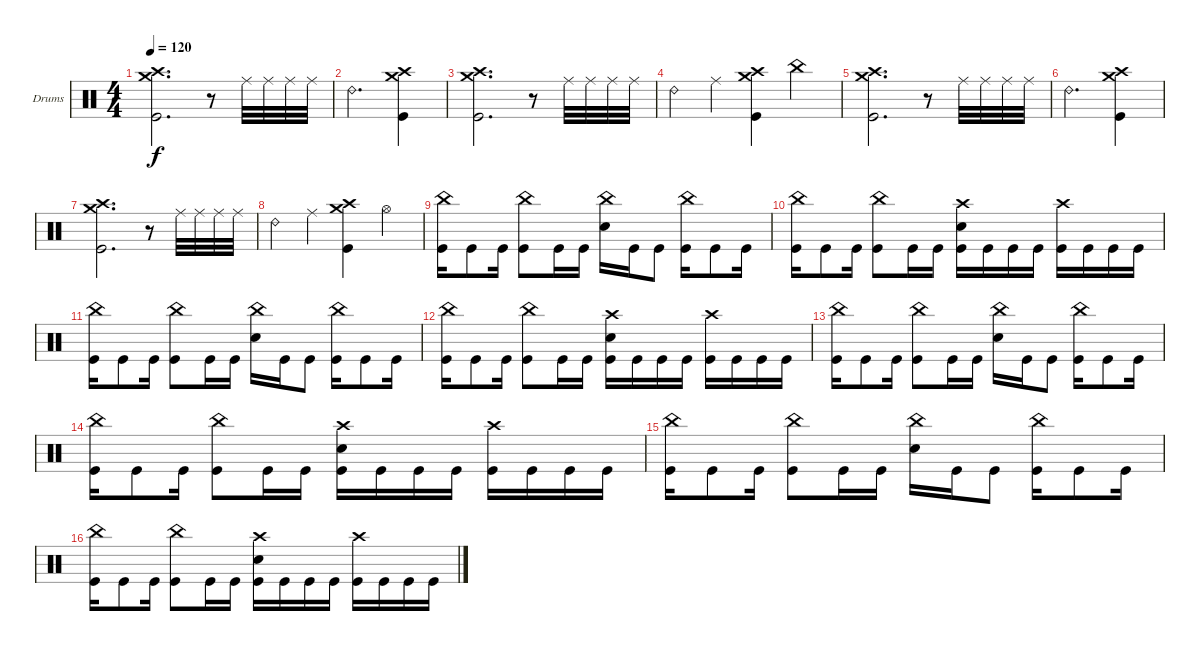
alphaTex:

\defaultSystemsLayout 4
\bracketExtendMode groupsimilarinstruments
\firstSystemTrackNameOrientation horizontal
\otherSystemsTrackNameOrientation horizontal
\track ("Drumkit" "Drums") {instrument percussion}
\staff {score}
\articulation defaults
\ts (4 4)
\tempo 120
\clef neutral
\scale
0.333333
\ks c
("Crash medium (hit)" "Crash high (hit)" "Kick (hit)").2{d dy f} r.8 "Ride (middle)".32 "Ride (middle)".32 "Ride (middle)".32 "Ride (middle)".32 |
\scale
0.333333 "Ride (bell) 2".2{d} ("Crash high (hit)" "Crash medium (hit)" "Kick (hit)").4 |
\scale
0.333333 ("Crash medium (hit)" "Crash high (hit)" "Kick (hit)").2{d} r.8 "Ride (middle)".32 "Ride (middle)".32 "Ride (middle)".32 "Ride (middle)".32 |
\scale
0.333333 "Ride (bell) 2".4 "Ride (middle)".4 ("Crash medium (hit)" "Crash high (hit)" "Kick (hit)").4 "China (hit)".4 |
\scale
0.333333 ("Crash medium (hit)" "Crash high (hit)" "Kick (hit)").2{d} r.8 "Ride (middle)".32 "Ride (middle)".32 "Ride (middle)".32 "Ride (middle)".32 |
\scale
0.333333 "Ride (bell) 2".2{d} ("Crash high (hit)" "Crash medium (hit)" "Kick (hit)").4 |
\scale
0.333333 ("Crash medium (hit)" "Crash high (hit)" "Kick (hit)").2{d} r.8 "Ride (middle)".32 "Ride (middle)".32 "Ride (middle)".32 "Ride (middle)".32 |
\scale
0.333333 "Ride (bell) 2".4 "Ride (middle)".4 ("Crash medium (hit)" "Crash high (hit)" "Kick (hit)").4 "Hi-Hat (open)".4 |
\scale
0.333333 ("China (hit)" "Kick (hit)").16 "Kick (hit)".8 "Kick (hit)".16 ("China (hit)" "Kick (hit)").8 "Kick (hit)".16 "Kick (hit)".16 ("China (hit)" "Snare (hit) 2").16 "Kick (hit)".16 "Kick (hit)".8 ("China (hit)" "Kick (hit)").16 "Kick (hit)".8 "Kick (hit)".16 |
\scale
0.333333 ("China (hit)" "Kick (hit)").16 "Kick (hit)".8 "Kick (hit)".16 ("China (hit)" "Kick (hit)").8 "Kick (hit)".16 "Kick (hit)".16 ("Crash high (hit)" "Snare (hit) 2" "Kick (hit)").16 "Kick (hit)".16 "Kick (hit)".16 "Kick (hit)".16 ("Crash high (hit)" "Kick (hit)").16 "Kick (hit)".16 "Kick (hit)".16 "Kick (hit)".16 |
\scale
0.333333 ("China (hit)" "Kick (hit)").16 "Kick (hit)".8 "Kick (hit)".16 ("China (hit)" "Kick (hit)").8 "Kick (hit)".16 "Kick (hit)".16 ("China (hit)" "Snare (hit) 2").16 "Kick (hit)".16 "Kick (hit)".8 ("China (hit)" "Kick (hit)").16 "Kick (hit)".8 "Kick (hit)".16 |
\scale
0.333333 ("China (hit)" "Kick (hit)").16 "Kick (hit)".8 "Kick (hit)".16 ("China (hit)" "Kick (hit)").8 "Kick (hit)".16 "Kick (hit)".16 ("Crash high (hit)" "Snare (hit) 2" "Kick (hit)").16 "Kick (hit)".16 "Kick (hit)".16 "Kick (hit)".16 ("Crash high (hit)" "Kick (hit)").16 "Kick (hit)".16 "Kick (hit)".16 "Kick (hit)".16 |
\scale
0.333333 ("China (hit)" "Kick (hit)").16 "Kick (hit)".8 "Kick (hit)".16 ("China (hit)" "Kick (hit)").8 "Kick (hit)".16 "Kick (hit)".16 ("China (hit)" "Snare (hit) 2").16 "Kick (hit)".16 "Kick (hit)".8 ("China (hit)" "Kick (hit)").16 "Kick (hit)".8 "Kick (hit)".16 |
\scale
0.333333 ("China (hit)" "Kick (hit)").16 "Kick (hit)".8 "Kick (hit)".16 ("China (hit)" "Kick (hit)").8 "Kick (hit)".16 "Kick (hit)".16 ("Crash high (hit)" "Snare (hit) 2" "Kick (hit)").16 "Kick (hit)".16 "Kick (hit)".16 "Kick (hit)".16 ("Crash high (hit)" "Kick (hit)").16 "Kick (hit)".16 "Kick (hit)".16 "Kick (hit)".16 |
\scale
0.333333 ("China (hit)" "Kick (hit)").16 "Kick (hit)".8 "Kick (hit)".16 ("China (hit)" "Kick (hit)").8 "Kick (hit)".16 "Kick (hit)".16 ("China (hit)" "Snare (hit) 2").16 "Kick (hit)".16 "Kick (hit)".8 ("China (hit)" "Kick (hit)").16 "Kick (hit)".8 "Kick (hit)".16 |
\scale
0.333333 ("China (hit)" "Kick (hit)").16 "Kick (hit)".8 "Kick (hit)".16 ("China (hit)" "Kick (hit)").8 "Kick (hit)".16 "Kick (hit)".16 ("Crash high (hit)" "Snare (hit) 2" "Kick (hit)").16 "Kick (hit)".16 "Kick (hit)".16 "Kick (hit)".16 ("Crash high (hit)" "Kick (hit)").16 "Kick (hit)".16 "Kick (hit)".16 "Kick (hit)".16
